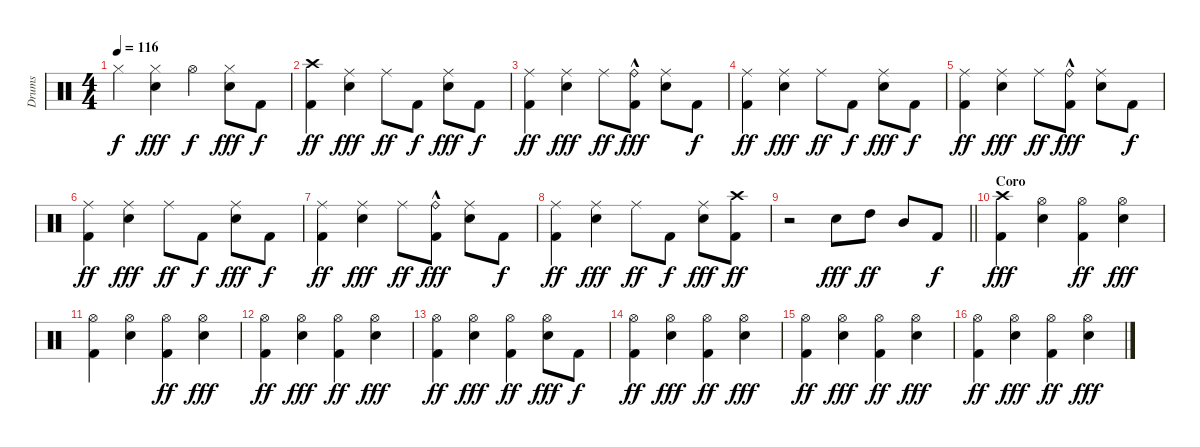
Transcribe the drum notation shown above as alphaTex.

\track ("Drums" "Drums") {instrument percussion}
\staff {score}
\articulation defaults
\ts (4 4)
\tempo 116
\clef neutral
\ks c "Hi-Hat (closed)".4{dy f}
("Hi-Hat (closed)" "Snare (hit) 2").4{dy fff} "Hi-Hat (open)".4{dy f} ("Hi-Hat (closed)" "Snare (hit) 2").8{dy fff} "Kick (hit) 2".8{dy f} |
("Crash high (hit)" "Kick (hit) 2").4{dy ff} ("Ride (middle)" "Snare (hit) 2").4{dy fff} "Ride (middle)".8{dy ff} "Kick (hit) 2".8{dy f} ("Ride (middle)" "Snare (hit) 2").8{dy fff} "Kick (hit) 2".8{dy f} |
("Ride (middle)" "Kick (hit) 2").4{dy ff} ("Ride (middle)" "Snare (hit) 2").4{dy fff} "Ride (middle)".8{dy ff} ("Ride (bell)"{hac} "Kick (hit) 2").8{dy fff} ("Ride (middle)" "Snare (hit) 2").8 "Kick (hit) 2".8{dy f} |
("Ride (middle)" "Kick (hit) 2").4{dy ff} ("Ride (middle)" "Snare (hit) 2").4{dy fff} "Ride (middle)".8{dy ff} "Kick (hit) 2".8{dy f} ("Ride (middle)" "Snare (hit) 2").8{dy fff} "Kick (hit) 2".8{dy f} |
("Ride (middle)" "Kick (hit) 2").4{dy ff} ("Ride (middle)" "Snare (hit) 2").4{dy fff} "Ride (middle)".8{dy ff} ("Ride (bell)"{hac} "Kick (hit) 2").8{dy fff} ("Ride (middle)" "Snare (hit) 2").8 "Kick (hit) 2".8{dy f} |
("Ride (middle)" "Kick (hit) 2").4{dy ff} ("Ride (middle)" "Snare (hit) 2").4{dy fff} "Ride (middle)".8{dy ff} "Kick (hit) 2".8{dy f} ("Ride (middle)" "Snare (hit) 2").8{dy fff} "Kick (hit) 2".8{dy f} |
("Ride (middle)" "Kick (hit) 2").4{dy ff} ("Ride (middle)" "Snare (hit) 2").4{dy fff} "Ride (middle)".8{dy ff} ("Ride (bell)"{hac} "Kick (hit) 2").8{dy fff} ("Ride (middle)" "Snare (hit) 2").8 "Kick (hit) 2".8{dy f} |
("Ride (middle)" "Kick (hit) 2").4{dy ff} ("Ride (middle)" "Snare (hit) 2").4{dy fff} "Ride (middle)".8{dy ff} "Kick (hit) 2".8{dy f} ("Ride (middle)" "Snare (hit) 2").8{dy fff} ("Crash high (hit)" "Kick (hit) 2").8{dy ff} |
\barLineRight lightlight
r.2 "Snare (hit) 2".8{dy fff} "High Tom (hit)".8{dy ff} "Mid Tom (hit)".8 "Kick (hit) 2".8{dy f} |
\section ("" "Coro")
("Crash high (hit)" "Kick (hit) 2").4{dy fff} ("Hi-Hat (open)" "Snare (hit) 2").4 ("Hi-Hat (open)" "Kick (hit) 2").4{dy ff} ("Hi-Hat (open)" "Snare (hit) 2").4{dy fff} |
("Hi-Hat (open)" "Kick (hit) 2").4 ("Hi-Hat (open)" "Snare (hit) 2").4 ("Hi-Hat (open)" "Kick (hit) 2").4{dy ff} ("Hi-Hat (open)" "Snare (hit) 2").4{dy fff} |
("Hi-Hat (open)" "Kick (hit) 2").4{dy ff} ("Hi-Hat (open)" "Snare (hit) 2").4{dy fff} ("Hi-Hat (open)" "Kick (hit) 2").4{dy ff} ("Hi-Hat (open)" "Snare (hit) 2").4{dy fff} |
("Hi-Hat (open)" "Kick (hit) 2").4{dy ff} ("Hi-Hat (open)" "Snare (hit) 2").4{dy fff} ("Hi-Hat (open)" "Kick (hit) 2").4{dy ff} ("Hi-Hat (open)" "Snare (hit) 2").8{dy fff} "Kick (hit) 2".8{dy f} |
("Hi-Hat (open)" "Kick (hit) 2").4{dy ff} ("Hi-Hat (open)" "Snare (hit) 2").4{dy fff} ("Hi-Hat (open)" "Kick (hit) 2").4{dy ff} ("Hi-Hat (open)" "Snare (hit) 2").4{dy fff} |
("Hi-Hat (open)" "Kick (hit) 2").4{dy ff} ("Hi-Hat (open)" "Snare (hit) 2").4{dy fff} ("Hi-Hat (open)" "Kick (hit) 2").4{dy ff} ("Hi-Hat (open)" "Snare (hit) 2").4{dy fff} |
("Hi-Hat (open)" "Kick (hit) 2").4{dy ff} ("Hi-Hat (open)" "Snare (hit) 2").4{dy fff} ("Hi-Hat (open)" "Kick (hit) 2").4{dy ff} ("Hi-Hat (open)" "Snare (hit) 2").4{dy fff}
